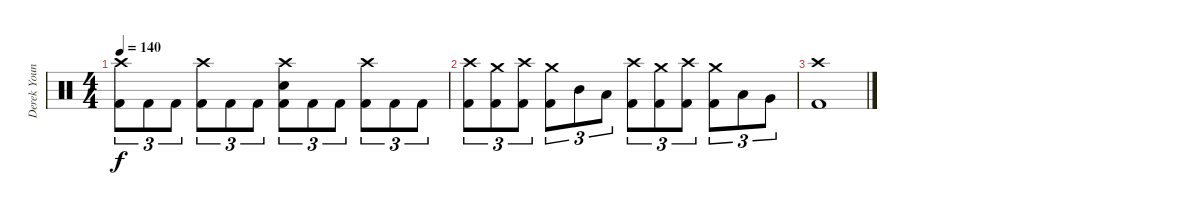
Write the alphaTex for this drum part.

\track ("Derek Youngsma" "Derek Youn") {instrument percussion}
\staff {score}
\articulation defaults
\ts (4 4)
\tempo 140
\clef neutral
\ks c
("Crash high (hit)" "Kick (hit) 2").8{tu (3 2) dy f} "Kick (hit) 2".8{tu (3 2)} "Kick (hit) 2".8{tu (3 2)} ("Crash high (hit)" "Kick (hit) 2").8{tu (3 2)} "Kick (hit) 2".8{tu (3 2)} "Kick (hit) 2".8{tu (3 2)} ("Crash high (hit)" "Electric Snare (hit)" "Kick (hit) 2").8{tu (3 2)} "Kick (hit) 2".8{tu (3 2)} "Kick (hit) 2".8{tu (3 2)} ("Crash high (hit)" "Kick (hit) 2").8{tu (3 2)} "Kick (hit) 2".8{tu (3 2)} "Kick (hit) 2".8{tu (3 2)} |
("Crash high (hit)" "Kick (hit) 2").8{tu (3 2)} ("Crash medium (hit)" "Kick (hit) 2").8{tu (3 2)} ("Crash high (hit)" "Kick (hit) 2").8{tu (3 2)} ("Crash medium (hit)" "Kick (hit) 2").8{tu (3 2)} "Mid Tom (hit)".8{tu (3 2)} "Low Tom (hit)".8{tu (3 2)} ("Crash high (hit)" "Kick (hit) 2").8{tu (3 2)} ("Crash medium (hit)" "Kick (hit) 2").8{tu (3 2)} ("Crash high (hit)" "Kick (hit) 2").8{tu (3 2)} ("Crash medium (hit)" "Kick (hit) 2").8{tu (3 2)} "Low Tom (hit)".8{tu (3 2)} "Very Low Tom (hit)".8{tu (3 2)} |
("Crash high (hit)" "Kick (hit) 2").1
